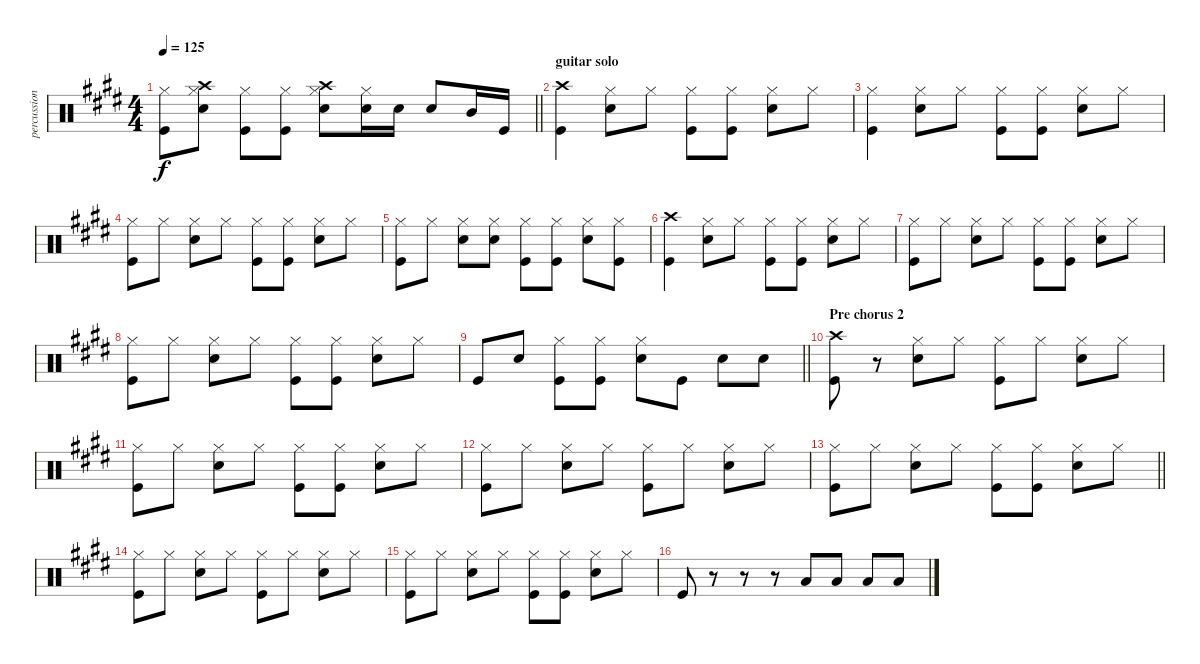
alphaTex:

\track ("percussion" "percussion") {instrument percussion}
\staff {score}
\articulation defaults
\ts (4 4)
\tempo 125
\clef neutral
\barLineRight lightlight
\ks e
("Hi-Hat (closed)" "Kick (hit)").8{dy f} ("Crash high (hit)" "Snare (hit) 2" "Hi-Hat (closed)").8 ("Hi-Hat (closed)" "Kick (hit)").8 ("Hi-Hat (closed)" "Kick (hit)").8 ("Crash high (hit)" "Snare (hit) 2" "Hi-Hat (closed)").8 ("Snare (hit) 2" "Hi-Hat (closed)").16 "Snare (hit) 2".16 "Snare (hit) 2".8 "Mid Tom (hit)".16 "Kick (hit)".16 |
\section ("" "guitar solo")
("Crash high (hit)" "Kick (hit)").4 ("Snare (hit) 2" "Hi-Hat (closed)").8 "Hi-Hat (closed)".8 ("Hi-Hat (closed)" "Kick (hit)").8 ("Hi-Hat (closed)" "Kick (hit)").8 ("Snare (hit) 2" "Hi-Hat (closed)").8 "Hi-Hat (closed)".8 |
("Hi-Hat (closed)" "Kick (hit)").4 ("Snare (hit) 2" "Hi-Hat (closed)").8 "Hi-Hat (closed)".8 ("Hi-Hat (closed)" "Kick (hit)").8 ("Hi-Hat (closed)" "Kick (hit)").8 ("Snare (hit) 2" "Hi-Hat (closed)").8 "Hi-Hat (closed)".8 |
("Hi-Hat (closed)" "Kick (hit)").8 "Hi-Hat (closed)".8 ("Snare (hit) 2" "Hi-Hat (closed)").8 "Hi-Hat (closed)".8 ("Hi-Hat (closed)" "Kick (hit)").8 ("Hi-Hat (closed)" "Kick (hit)").8 ("Snare (hit) 2" "Hi-Hat (closed)").8 "Hi-Hat (closed)".8 |
("Hi-Hat (closed)" "Kick (hit)").8 "Hi-Hat (closed)".8 ("Snare (hit) 2" "Hi-Hat (closed)").8 ("Snare (hit) 2" "Hi-Hat (closed)").8 ("Hi-Hat (closed)" "Kick (hit)").8 ("Hi-Hat (closed)" "Kick (hit)").8 ("Snare (hit) 2" "Hi-Hat (closed)").8 ("Hi-Hat (closed)" "Kick (hit)").8 |
("Crash high (hit)" "Kick (hit)").4 ("Snare (hit) 2" "Hi-Hat (closed)").8 "Hi-Hat (closed)".8 ("Hi-Hat (closed)" "Kick (hit)").8 ("Hi-Hat (closed)" "Kick (hit)").8 ("Snare (hit) 2" "Hi-Hat (closed)").8 "Hi-Hat (closed)".8 |
("Hi-Hat (closed)" "Kick (hit)").8 "Hi-Hat (closed)".8 ("Snare (hit) 2" "Hi-Hat (closed)").8 "Hi-Hat (closed)".8 ("Hi-Hat (closed)" "Kick (hit)").8 ("Hi-Hat (closed)" "Kick (hit)").8 ("Snare (hit) 2" "Hi-Hat (closed)").8 "Hi-Hat (closed)".8 |
("Hi-Hat (closed)" "Kick (hit)").8 "Hi-Hat (closed)".8 ("Snare (hit) 2" "Hi-Hat (closed)").8 "Hi-Hat (closed)".8 ("Hi-Hat (closed)" "Kick (hit)").8 ("Hi-Hat (closed)" "Kick (hit)").8 ("Snare (hit) 2" "Hi-Hat (closed)").8 "Hi-Hat (closed)".8 |
\barLineRight lightlight "Kick (hit)".8 "Snare (hit) 2".8
("Hi-Hat (closed)" "Kick (hit)").8 ("Hi-Hat (closed)" "Kick (hit)").8 ("Snare (hit) 2" "Hi-Hat (closed)").8 "Kick (hit)".8 "Snare (hit) 2".8 "Snare (hit) 2".8 |
\section ("" "Pre chorus 2")
("Crash high (hit)" "Kick (hit)").8 r.8 ("Electric Snare (hit)" "Hi-Hat (closed)").8 "Hi-Hat (closed)".8 ("Hi-Hat (closed)" "Kick (hit)").8 "Hi-Hat (closed)".8 ("Electric Snare (hit)" "Hi-Hat (closed)").8 "Hi-Hat (closed)".8 |
("Hi-Hat (closed)" "Kick (hit)").8 "Hi-Hat (closed)".8 ("Electric Snare (hit)" "Hi-Hat (closed)").8 "Hi-Hat (closed)".8 ("Hi-Hat (closed)" "Kick (hit)").8 ("Hi-Hat (closed)" "Kick (hit)").8 ("Electric Snare (hit)" "Hi-Hat (closed)").8 "Hi-Hat (closed)".8 |
("Hi-Hat (closed)" "Kick (hit)").8 "Hi-Hat (closed)".8 ("Electric Snare (hit)" "Hi-Hat (closed)").8 "Hi-Hat (closed)".8 ("Hi-Hat (closed)" "Kick (hit)").8 "Hi-Hat (closed)".8 ("Electric Snare (hit)" "Hi-Hat (closed)").8 "Hi-Hat (closed)".8 |
\barLineRight lightlight
("Hi-Hat (closed)" "Kick (hit)").8 "Hi-Hat (closed)".8 ("Electric Snare (hit)" "Hi-Hat (closed)").8 "Hi-Hat (closed)".8 ("Hi-Hat (closed)" "Kick (hit)").8 ("Hi-Hat (closed)" "Kick (hit)").8 ("Electric Snare (hit)" "Hi-Hat (closed)").8 "Hi-Hat (closed)".8 |
("Hi-Hat (closed)" "Kick (hit)").8 "Hi-Hat (closed)".8 ("Electric Snare (hit)" "Hi-Hat (closed)").8 "Hi-Hat (closed)".8 ("Hi-Hat (closed)" "Kick (hit)").8 "Hi-Hat (closed)".8 ("Electric Snare (hit)" "Hi-Hat (closed)").8 "Hi-Hat (closed)".8 |
("Hi-Hat (closed)" "Kick (hit)").8 "Hi-Hat (closed)".8 ("Electric Snare (hit)" "Hi-Hat (closed)").8 "Hi-Hat (closed)".8 ("Hi-Hat (closed)" "Kick (hit)").8 ("Hi-Hat (closed)" "Kick (hit)").8 ("Electric Snare (hit)" "Hi-Hat (closed)").8 "Hi-Hat (closed)".8 |
"Kick (hit)".8 r.8 r.8 r.8 "Low Floor Tom (hit)".8 "Low Floor Tom (hit)".8 "Low Floor Tom (hit)".8 "Low Floor Tom (hit)".8
